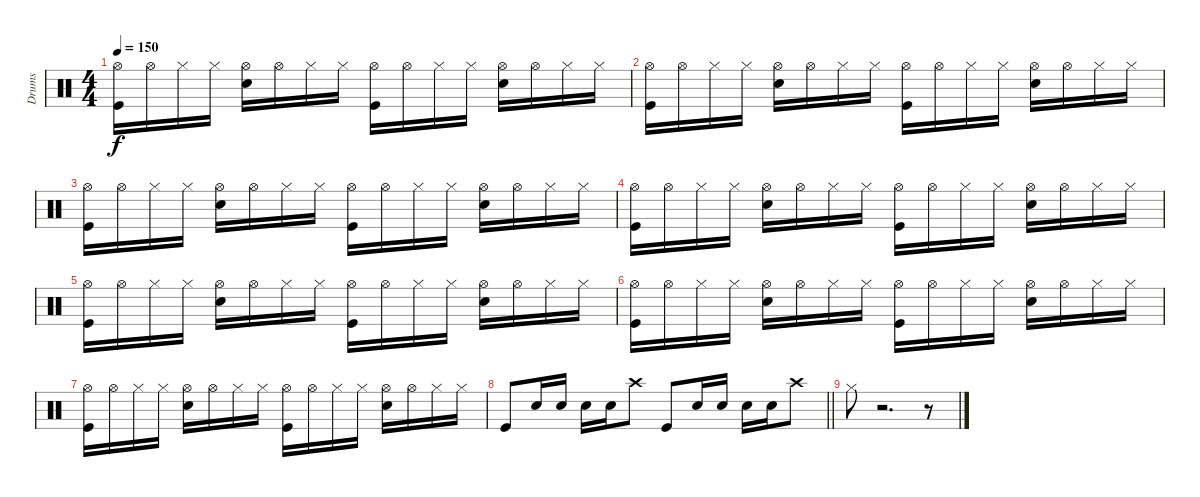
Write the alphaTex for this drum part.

\track ("Drums" "Drums") {instrument percussion}
\staff {score}
\articulation defaults
\ts (4 4)
\tempo 150
\clef neutral
\ks c
("Hi-Hat (open)" "Kick (hit)").16{dy f} "Hi-Hat (open)".16 "Hi-Hat (closed)".16 "Hi-Hat (closed)".16 ("Hi-Hat (open)" "Snare (hit) 2").16 "Hi-Hat (open)".16 "Hi-Hat (closed)".16 "Hi-Hat (closed)".16 ("Hi-Hat (open)" "Kick (hit)").16 "Hi-Hat (open)".16 "Hi-Hat (closed)".16 "Hi-Hat (closed)".16 ("Hi-Hat (open)" "Snare (hit) 2").16 "Hi-Hat (open)".16 "Hi-Hat (closed)".16 "Hi-Hat (closed)".16 |
("Hi-Hat (open)" "Kick (hit)").16 "Hi-Hat (open)".16 "Hi-Hat (closed)".16 "Hi-Hat (closed)".16 ("Hi-Hat (open)" "Snare (hit) 2").16 "Hi-Hat (open)".16 "Hi-Hat (closed)".16 "Hi-Hat (closed)".16 ("Hi-Hat (open)" "Kick (hit)").16 "Hi-Hat (open)".16 "Hi-Hat (closed)".16 "Hi-Hat (closed)".16 ("Hi-Hat (open)" "Snare (hit) 2").16 "Hi-Hat (open)".16 "Hi-Hat (closed)".16 "Hi-Hat (closed)".16 |
("Hi-Hat (open)" "Kick (hit)").16 "Hi-Hat (open)".16 "Hi-Hat (closed)".16 "Hi-Hat (closed)".16 ("Hi-Hat (open)" "Snare (hit) 2").16 "Hi-Hat (open)".16 "Hi-Hat (closed)".16 "Hi-Hat (closed)".16 ("Hi-Hat (open)" "Kick (hit)").16 "Hi-Hat (open)".16 "Hi-Hat (closed)".16 "Hi-Hat (closed)".16 ("Hi-Hat (open)" "Snare (hit) 2").16 "Hi-Hat (open)".16 "Hi-Hat (closed)".16 "Hi-Hat (closed)".16 |
("Hi-Hat (open)" "Kick (hit)").16 "Hi-Hat (open)".16 "Hi-Hat (closed)".16 "Hi-Hat (closed)".16 ("Hi-Hat (open)" "Snare (hit) 2").16 "Hi-Hat (open)".16 "Hi-Hat (closed)".16 "Hi-Hat (closed)".16 ("Hi-Hat (open)" "Kick (hit)").16 "Hi-Hat (open)".16 "Hi-Hat (closed)".16 "Hi-Hat (closed)".16 ("Hi-Hat (open)" "Snare (hit) 2").16 "Hi-Hat (open)".16 "Hi-Hat (closed)".16 "Hi-Hat (closed)".16 |
("Hi-Hat (open)" "Kick (hit)").16 "Hi-Hat (open)".16 "Hi-Hat (closed)".16 "Hi-Hat (closed)".16 ("Hi-Hat (open)" "Snare (hit) 2").16 "Hi-Hat (open)".16 "Hi-Hat (closed)".16 "Hi-Hat (closed)".16 ("Hi-Hat (open)" "Kick (hit)").16 "Hi-Hat (open)".16 "Hi-Hat (closed)".16 "Hi-Hat (closed)".16 ("Hi-Hat (open)" "Snare (hit) 2").16 "Hi-Hat (open)".16 "Hi-Hat (closed)".16 "Hi-Hat (closed)".16 |
("Hi-Hat (open)" "Kick (hit)").16 "Hi-Hat (open)".16 "Hi-Hat (closed)".16 "Hi-Hat (closed)".16 ("Hi-Hat (open)" "Snare (hit) 2").16 "Hi-Hat (open)".16 "Hi-Hat (closed)".16 "Hi-Hat (closed)".16 ("Hi-Hat (open)" "Kick (hit)").16 "Hi-Hat (open)".16 "Hi-Hat (closed)".16 "Hi-Hat (closed)".16 ("Hi-Hat (open)" "Snare (hit) 2").16 "Hi-Hat (open)".16 "Hi-Hat (closed)".16 "Hi-Hat (closed)".16 |
("Hi-Hat (open)" "Kick (hit)").16 "Hi-Hat (open)".16 "Hi-Hat (closed)".16 "Hi-Hat (closed)".16 ("Hi-Hat (open)" "Snare (hit) 2").16 "Hi-Hat (open)".16 "Hi-Hat (closed)".16 "Hi-Hat (closed)".16 ("Hi-Hat (open)" "Kick (hit)").16 "Hi-Hat (open)".16 "Hi-Hat (closed)".16 "Hi-Hat (closed)".16 ("Hi-Hat (open)" "Snare (hit) 2").16 "Hi-Hat (open)".16 "Hi-Hat (closed)".16 "Hi-Hat (closed)".16 |
\barLineRight lightlight "Kick (hit)".8 "Snare (hit) 2".16 "Snare (hit) 2".16 "Snare (hit) 2".16 "Snare (hit) 2".16 "Crash high (hit)".8 "Kick (hit)".8 "Snare (hit) 2".16 "Snare (hit) 2".16 "Snare (hit) 2".16 "Snare (hit) 2".16 "Crash high (hit)".8
|
"Hi-Hat (closed)".8 r.2{d} r.8
